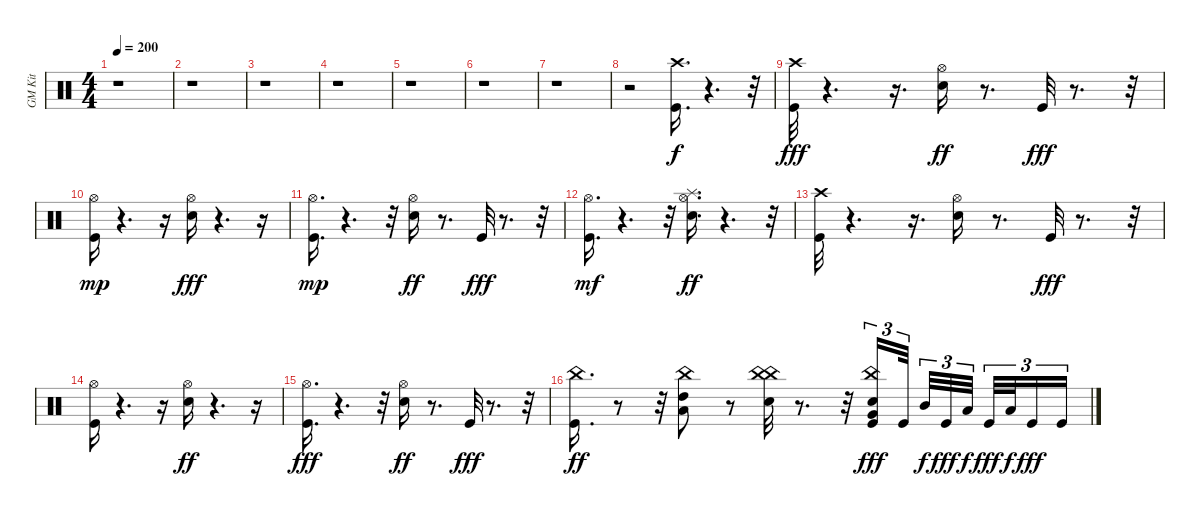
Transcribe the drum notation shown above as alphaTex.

\track ("GM Kit" "GM Kit") {instrument percussion}
\staff {score}
\articulation defaults
\ts (4 4)
\tempo 200
\clef neutral
\ks c
r.1{dy f} |
r.1 |
r.1 |
r.1 |
r.1 |
r.1 |
r.1 |
r.2 ("Kick (hit)" "Crash high (hit)").16{d} r.4{d} r.32 |
("Kick (hit)" "Crash high (hit)").32{dy fff} r.4{d} r.16{d} ("Snare (hit) 2" "Hi-Hat (open)").16{dy ff} r.8{d} "Kick (hit)".32{dy fff} r.8{d} r.32 |
("Kick (hit)" "Hi-Hat (open)").16{dy mp} r.4{d} r.16 ("Snare (hit) 2" "Hi-Hat (open)").16{dy fff} r.4{d} r.16 |
("Kick (hit)" "Hi-Hat (open)").16{d dy mp} r.4{d} r.32 ("Snare (hit) 2" "Hi-Hat (open)").16{dy ff} r.8{d} "Kick (hit)".32{dy fff} r.8{d} r.32 |
("Kick (hit)" "Hi-Hat (open)").16{d dy mf} r.4{d} r.32 ("Snare (hit) 2" "Hi-Hat (open)" "Splash (hit)").16{d dy ff} r.4{d} r.32 |
("Kick (hit)" "Crash high (hit)").32 r.4{d} r.16{d} ("Snare (hit) 2" "Hi-Hat (open)").16 r.8{d} "Kick (hit)".32{dy fff} r.8{d} r.32 |
("Kick (hit)" "Hi-Hat (open)").16 r.4{d} r.16 ("Snare (hit) 2" "Hi-Hat (open)").16{dy ff} r.4{d} r.16 |
("Kick (hit)" "Hi-Hat (open)").16{d dy fff} r.4{d} r.32 ("Snare (hit) 2" "Hi-Hat (open)").16{dy ff} r.8{d} "Kick (hit)".32{dy fff} r.8{d} r.32 |
("Kick (hit)" "China (hit)").16{d dy ff} r.8 r.32 ("Low Tom (hit)" "High Tom (hit)" "China (hit)").8 r.8 ("Snare (hit) 2" "China (hit)" "China (hit)").32 r.8{d} r.32 ("Kick (hit)" "Snare (hit) 2" "Very Low Tom (hit)" "China (hit)").16{tu (3 2) dy fff} "Kick (hit)".32{tu (3 2) beam splitsecondary} "Mid Tom (hit)".32{tu (3 2) dy f} "Kick (hit)".32{tu (3 2) dy fff} "Low Tom (hit)".32{tu (3 2) dy f beam splitsecondary} "Kick (hit)".32{tu (3 2) dy fff} "Low Floor Tom (hit)".32{tu (3 2) dy f} "Kick (hit)".16{tu (3 2) dy fff} "Kick (hit)".16{tu (3 2)}
